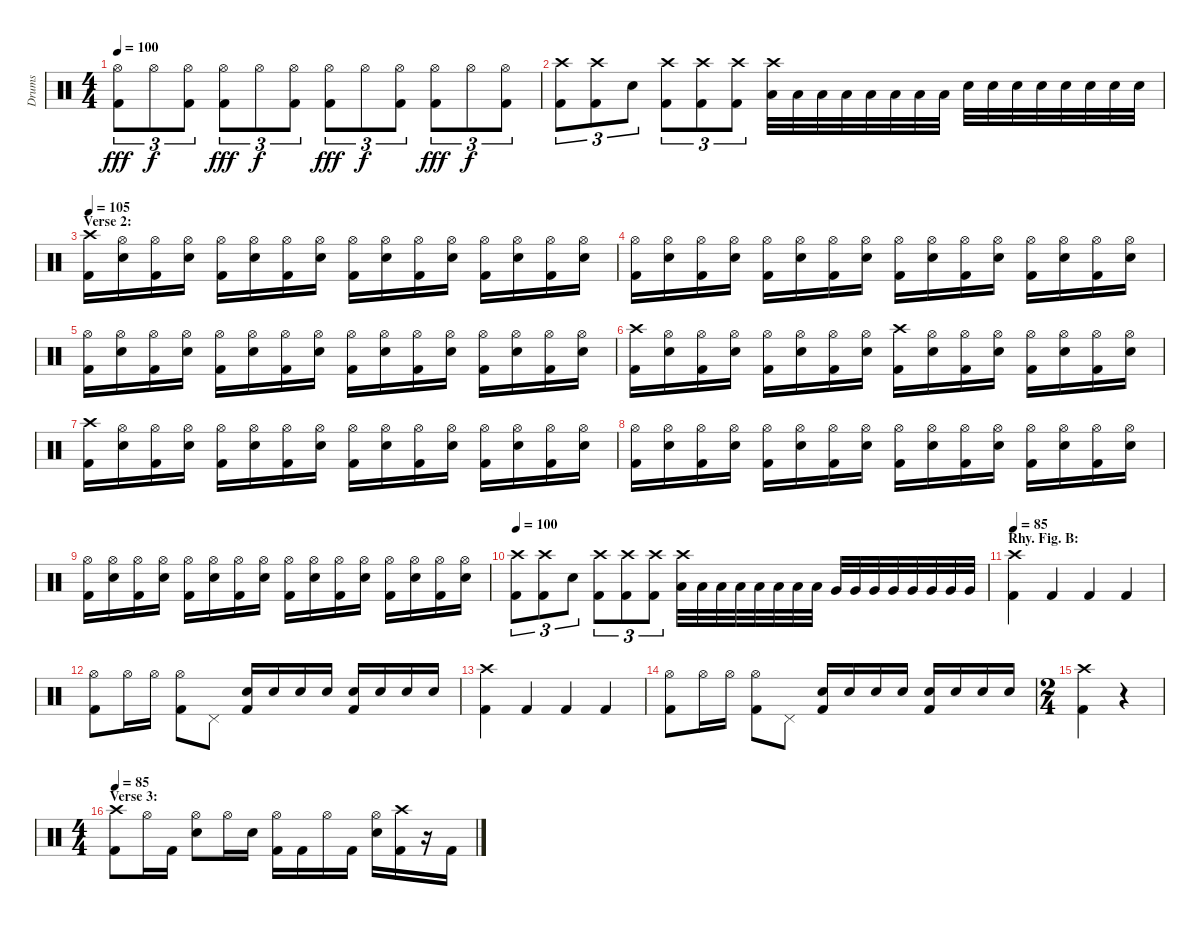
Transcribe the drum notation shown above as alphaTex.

\track ("Drums" "Drums") {instrument percussion}
\staff {score}
\articulation defaults
\ts (4 4)
\tempo 100
\clef neutral
\ks c
("Hi-Hat (open)" "Kick (hit) 2").8{tu (3 2) dy fff} "Hi-Hat (open)".8{tu (3 2) dy f} ("Hi-Hat (open)" "Kick (hit) 2").8{tu (3 2)} ("Hi-Hat (open)" "Kick (hit) 2").8{tu (3 2) dy fff} "Hi-Hat (open)".8{tu (3 2) dy f} ("Hi-Hat (open)" "Kick (hit) 2").8{tu (3 2)} ("Hi-Hat (open)" "Kick (hit) 2").8{tu (3 2) dy fff} "Hi-Hat (open)".8{tu (3 2) dy f} ("Hi-Hat (open)" "Kick (hit) 2").8{tu (3 2)} ("Hi-Hat (open)" "Kick (hit) 2").8{tu (3 2) dy fff} "Hi-Hat (open)".8{tu (3 2) dy f} ("Hi-Hat (open)" "Kick (hit) 2").8{tu (3 2)} |
("Crash high (hit)" "Kick (hit) 2").8{tu (3 2)} ("Crash high (hit)" "Kick (hit) 2").8{tu (3 2)} "Electric Snare (hit)".8{tu (3 2)} ("Crash high (hit)" "Kick (hit) 2").8{tu (3 2)} ("Crash high (hit)" "Kick (hit) 2").8{tu (3 2)} ("Crash high (hit)" "Kick (hit) 2").8{tu (3 2)} ("Crash high (hit)" "Low Tom (hit)").32 "Low Tom (hit)".32 "Low Tom (hit)".32 "Low Tom (hit)".32 "Low Tom (hit)".32 "Low Tom (hit)".32 "Low Tom (hit)".32 "Low Tom (hit)".32 "Electric Snare (hit)".32 "Electric Snare (hit)".32 "Electric Snare (hit)".32 "Electric Snare (hit)".32 "Electric Snare (hit)".32 "Electric Snare (hit)".32 "Electric Snare (hit)".32 "Electric Snare (hit)".32 |
\section ("" "Verse 2:")
\tempo 105
("Crash high (hit)" "Kick (hit) 2").16 ("Hi-Hat (open)" "Electric Snare (hit)").16 ("Hi-Hat (open)" "Kick (hit) 2").16 ("Hi-Hat (open)" "Electric Snare (hit)").16 ("Hi-Hat (open)" "Kick (hit) 2").16 ("Hi-Hat (open)" "Electric Snare (hit)").16 ("Hi-Hat (open)" "Kick (hit) 2").16 ("Hi-Hat (open)" "Electric Snare (hit)").16 ("Hi-Hat (open)" "Kick (hit) 2").16 ("Hi-Hat (open)" "Electric Snare (hit)").16 ("Hi-Hat (open)" "Kick (hit) 2").16 ("Hi-Hat (open)" "Electric Snare (hit)").16 ("Hi-Hat (open)" "Kick (hit) 2").16 ("Hi-Hat (open)" "Electric Snare (hit)").16 ("Hi-Hat (open)" "Kick (hit) 2").16 ("Hi-Hat (open)" "Electric Snare (hit)").16 |
("Hi-Hat (open)" "Kick (hit) 2").16 ("Hi-Hat (open)" "Electric Snare (hit)").16 ("Hi-Hat (open)" "Kick (hit) 2").16 ("Hi-Hat (open)" "Electric Snare (hit)").16 ("Hi-Hat (open)" "Kick (hit) 2").16 ("Hi-Hat (open)" "Electric Snare (hit)").16 ("Hi-Hat (open)" "Kick (hit) 2").16 ("Hi-Hat (open)" "Electric Snare (hit)").16 ("Hi-Hat (open)" "Kick (hit) 2").16 ("Hi-Hat (open)" "Electric Snare (hit)").16 ("Hi-Hat (open)" "Kick (hit) 2").16 ("Hi-Hat (open)" "Electric Snare (hit)").16 ("Hi-Hat (open)" "Kick (hit) 2").16 ("Hi-Hat (open)" "Electric Snare (hit)").16 ("Hi-Hat (open)" "Kick (hit) 2").16 ("Hi-Hat (open)" "Electric Snare (hit)").16 |
("Hi-Hat (open)" "Kick (hit) 2").16 ("Hi-Hat (open)" "Electric Snare (hit)").16 ("Hi-Hat (open)" "Kick (hit) 2").16 ("Hi-Hat (open)" "Electric Snare (hit)").16 ("Hi-Hat (open)" "Kick (hit) 2").16 ("Hi-Hat (open)" "Electric Snare (hit)").16 ("Hi-Hat (open)" "Kick (hit) 2").16 ("Hi-Hat (open)" "Electric Snare (hit)").16 ("Hi-Hat (open)" "Kick (hit) 2").16 ("Hi-Hat (open)" "Electric Snare (hit)").16 ("Hi-Hat (open)" "Kick (hit) 2").16 ("Hi-Hat (open)" "Electric Snare (hit)").16 ("Hi-Hat (open)" "Kick (hit) 2").16 ("Hi-Hat (open)" "Electric Snare (hit)").16 ("Hi-Hat (open)" "Kick (hit) 2").16 ("Hi-Hat (open)" "Electric Snare (hit)").16 |
("Crash high (hit)" "Kick (hit) 2").16 ("Hi-Hat (open)" "Electric Snare (hit)").16 ("Hi-Hat (open)" "Kick (hit) 2").16 ("Hi-Hat (open)" "Electric Snare (hit)").16 ("Hi-Hat (open)" "Kick (hit) 2").16 ("Hi-Hat (open)" "Electric Snare (hit)").16 ("Hi-Hat (open)" "Kick (hit) 2").16 ("Hi-Hat (open)" "Electric Snare (hit)").16 ("Crash high (hit)" "Kick (hit) 2").16 ("Hi-Hat (open)" "Electric Snare (hit)").16 ("Hi-Hat (open)" "Kick (hit) 2").16 ("Hi-Hat (open)" "Electric Snare (hit)").16 ("Hi-Hat (open)" "Kick (hit) 2").16 ("Hi-Hat (open)" "Electric Snare (hit)").16 ("Hi-Hat (open)" "Kick (hit) 2").16 ("Hi-Hat (open)" "Electric Snare (hit)").16 |
("Crash high (hit)" "Kick (hit) 2").16 ("Hi-Hat (open)" "Electric Snare (hit)").16 ("Hi-Hat (open)" "Kick (hit) 2").16 ("Hi-Hat (open)" "Electric Snare (hit)").16 ("Hi-Hat (open)" "Kick (hit) 2").16 ("Hi-Hat (open)" "Electric Snare (hit)").16 ("Hi-Hat (open)" "Kick (hit) 2").16 ("Hi-Hat (open)" "Electric Snare (hit)").16 ("Hi-Hat (open)" "Kick (hit) 2").16 ("Hi-Hat (open)" "Electric Snare (hit)").16 ("Hi-Hat (open)" "Kick (hit) 2").16 ("Hi-Hat (open)" "Electric Snare (hit)").16 ("Hi-Hat (open)" "Kick (hit) 2").16 ("Hi-Hat (open)" "Electric Snare (hit)").16 ("Hi-Hat (open)" "Kick (hit) 2").16 ("Hi-Hat (open)" "Electric Snare (hit)").16 |
("Hi-Hat (open)" "Kick (hit) 2").16 ("Hi-Hat (open)" "Electric Snare (hit)").16 ("Hi-Hat (open)" "Kick (hit) 2").16 ("Hi-Hat (open)" "Electric Snare (hit)").16 ("Hi-Hat (open)" "Kick (hit) 2").16 ("Hi-Hat (open)" "Electric Snare (hit)").16 ("Hi-Hat (open)" "Kick (hit) 2").16 ("Hi-Hat (open)" "Electric Snare (hit)").16 ("Hi-Hat (open)" "Kick (hit) 2").16 ("Hi-Hat (open)" "Electric Snare (hit)").16 ("Hi-Hat (open)" "Kick (hit) 2").16 ("Hi-Hat (open)" "Electric Snare (hit)").16 ("Hi-Hat (open)" "Kick (hit) 2").16 ("Hi-Hat (open)" "Electric Snare (hit)").16 ("Hi-Hat (open)" "Kick (hit) 2").16 ("Hi-Hat (open)" "Electric Snare (hit)").16 |
("Hi-Hat (open)" "Kick (hit) 2").16 ("Hi-Hat (open)" "Electric Snare (hit)").16 ("Hi-Hat (open)" "Kick (hit) 2").16 ("Hi-Hat (open)" "Electric Snare (hit)").16 ("Hi-Hat (open)" "Kick (hit) 2").16 ("Hi-Hat (open)" "Electric Snare (hit)").16 ("Hi-Hat (open)" "Kick (hit) 2").16 ("Hi-Hat (open)" "Electric Snare (hit)").16 ("Hi-Hat (open)" "Kick (hit) 2").16 ("Hi-Hat (open)" "Electric Snare (hit)").16 ("Hi-Hat (open)" "Kick (hit) 2").16 ("Hi-Hat (open)" "Electric Snare (hit)").16 ("Hi-Hat (open)" "Kick (hit) 2").16 ("Hi-Hat (open)" "Electric Snare (hit)").16 ("Hi-Hat (open)" "Kick (hit) 2").16 ("Hi-Hat (open)" "Electric Snare (hit)").16 |
\tempo 100
("Crash high (hit)" "Kick (hit) 2").8{tu (3 2)} ("Crash high (hit)" "Kick (hit) 2").8{tu (3 2)} "Electric Snare (hit)".8{tu (3 2)} ("Crash high (hit)" "Kick (hit) 2").8{tu (3 2)} ("Crash high (hit)" "Kick (hit) 2").8{tu (3 2)} ("Crash high (hit)" "Kick (hit) 2").8{tu (3 2)} ("Crash high (hit)" "Low Tom (hit)").32 "Low Tom (hit)".32 "Low Tom (hit)".32 "Low Tom (hit)".32 "Low Tom (hit)".32 "Low Tom (hit)".32 "Low Tom (hit)".32 "Low Tom (hit)".32 "Very Low Tom (hit)".32 "Very Low Tom (hit)".32 "Very Low Tom (hit)".32 "Very Low Tom (hit)".32 "Very Low Tom (hit)".32 "Very Low Tom (hit)".32 "Very Low Tom (hit)".32 "Very Low Tom (hit)".32 |
\section ("" "Rhy. Fig. B:")
\tempo 85
("Crash high (hit)" "Kick (hit) 2").4 "Kick (hit) 2".4 "Kick (hit) 2".4 "Kick (hit) 2".4 |
("Hi-Hat (open)" "Kick (hit) 2").8 "Hi-Hat (open)".16 "Hi-Hat (open)".16 ("Hi-Hat (open)" "Kick (hit) 2").8 "Pedal Hi-Hat (hit)".8 ("Electric Snare (hit)" "Kick (hit) 2").16 "Electric Snare (hit)".16 "Electric Snare (hit)".16 "Electric Snare (hit)".16 ("Electric Snare (hit)" "Kick (hit) 2").16 "Electric Snare (hit)".16 "Electric Snare (hit)".16 "Electric Snare (hit)".16 |
("Crash high (hit)" "Kick (hit) 2").4 "Kick (hit) 2".4 "Kick (hit) 2".4 "Kick (hit) 2".4 |
("Hi-Hat (open)" "Kick (hit) 2").8 "Hi-Hat (open)".16 "Hi-Hat (open)".16 ("Hi-Hat (open)" "Kick (hit) 2").8 "Pedal Hi-Hat (hit)".8 ("Electric Snare (hit)" "Kick (hit) 2").16 "Electric Snare (hit)".16 "Electric Snare (hit)".16 "Electric Snare (hit)".16 ("Electric Snare (hit)" "Kick (hit) 2").16 "Electric Snare (hit)".16 "Electric Snare (hit)".16 "Electric Snare (hit)".16 |
\ts (2 4)
("Crash high (hit)" "Kick (hit) 2").4 r.4 |
\ts (4 4)
\section ("" "Verse 3:")
\tempo 85
("Crash high (hit)" "Kick (hit) 2").8 "Hi-Hat (open)".16 "Kick (hit) 2".16 ("Hi-Hat (open)" "Electric Snare (hit)").8 "Hi-Hat (open)".16 "Electric Snare (hit)".16 ("Hi-Hat (open)" "Kick (hit) 2").16 "Kick (hit) 2".16 "Hi-Hat (open)".16 "Kick (hit) 2".16 ("Hi-Hat (open)" "Electric Snare (hit)").16 ("Crash high (hit)" "Kick (hit) 2").16 r.16 "Kick (hit) 2".16
